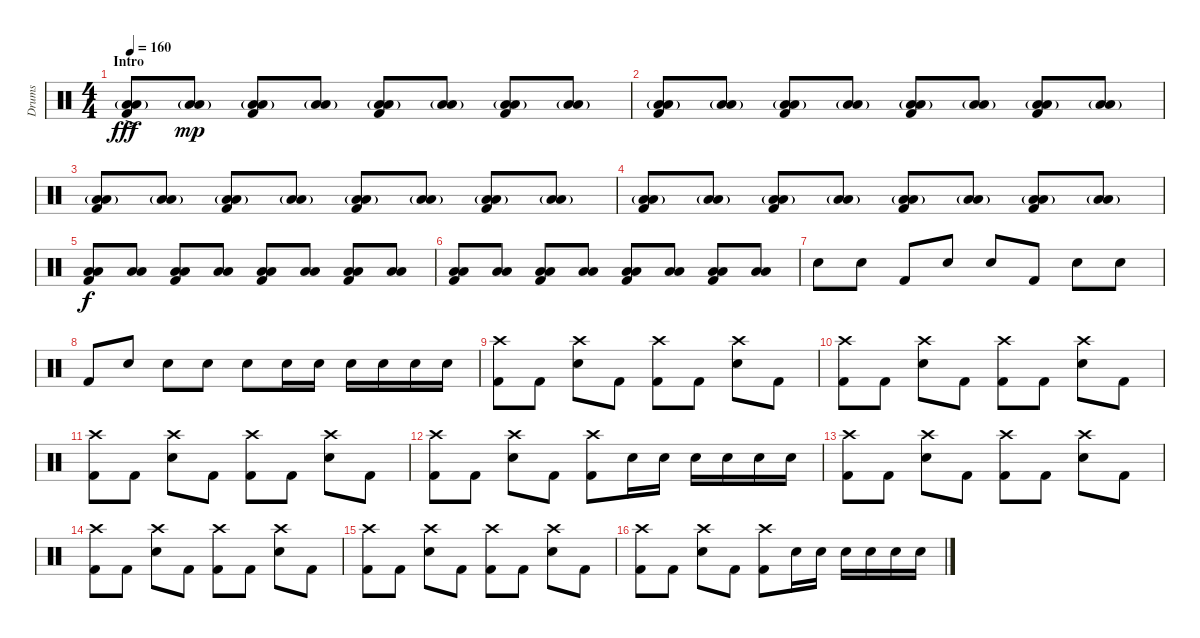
\track ("Drums" "Drums") {instrument percussion}
\staff {score}
\articulation defaults
\ts (4 4)
\section ("" "Intro")
\tempo 160
\clef neutral
\ks c
("Low Tom (hit)"{g ac} "Low Floor Tom (hit)"{g ac} "Kick (hit) 2"{ac}).8{dy fff} ("Low Tom (hit)"{g} "Low Floor Tom (hit)"{g}).8{dy mp} ("Low Tom (hit)"{g} "Low Floor Tom (hit)"{g} "Kick (hit) 2").8 ("Low Tom (hit)"{g} "Low Floor Tom (hit)"{g}).8 ("Low Tom (hit)"{g} "Low Floor Tom (hit)"{g} "Kick (hit) 2").8 ("Low Tom (hit)"{g} "Low Floor Tom (hit)"{g}).8 ("Low Tom (hit)"{g} "Low Floor Tom (hit)"{g} "Kick (hit) 2").8 ("Low Tom (hit)"{g} "Low Floor Tom (hit)"{g}).8 |
("Low Tom (hit)"{g} "Low Floor Tom (hit)"{g} "Kick (hit) 2").8 ("Low Tom (hit)"{g} "Low Floor Tom (hit)"{g}).8 ("Low Tom (hit)"{g} "Low Floor Tom (hit)"{g} "Kick (hit) 2").8 ("Low Tom (hit)"{g} "Low Floor Tom (hit)"{g}).8 ("Low Tom (hit)"{g} "Low Floor Tom (hit)"{g} "Kick (hit) 2").8 ("Low Tom (hit)"{g} "Low Floor Tom (hit)"{g}).8 ("Low Tom (hit)"{g} "Low Floor Tom (hit)"{g} "Kick (hit) 2").8 ("Low Tom (hit)"{g} "Low Floor Tom (hit)"{g}).8 |
("Low Tom (hit)"{g} "Low Floor Tom (hit)"{g} "Kick (hit) 2").8 ("Low Tom (hit)"{g} "Low Floor Tom (hit)"{g}).8 ("Low Tom (hit)"{g} "Low Floor Tom (hit)"{g} "Kick (hit) 2").8 ("Low Tom (hit)"{g} "Low Floor Tom (hit)"{g}).8 ("Low Tom (hit)"{g} "Low Floor Tom (hit)"{g} "Kick (hit) 2").8 ("Low Tom (hit)"{g} "Low Floor Tom (hit)"{g}).8 ("Low Tom (hit)"{g} "Low Floor Tom (hit)"{g} "Kick (hit) 2").8 ("Low Tom (hit)"{g} "Low Floor Tom (hit)"{g}).8 |
("Low Tom (hit)"{g} "Low Floor Tom (hit)"{g} "Kick (hit) 2").8 ("Low Tom (hit)"{g} "Low Floor Tom (hit)"{g}).8 ("Low Tom (hit)"{g} "Low Floor Tom (hit)"{g} "Kick (hit) 2").8 ("Low Tom (hit)"{g} "Low Floor Tom (hit)"{g}).8 ("Low Tom (hit)"{g} "Low Floor Tom (hit)"{g} "Kick (hit) 2").8 ("Low Tom (hit)"{g} "Low Floor Tom (hit)"{g}).8 ("Low Tom (hit)"{g} "Low Floor Tom (hit)"{g} "Kick (hit) 2").8 ("Low Tom (hit)"{g} "Low Floor Tom (hit)"{g}).8 |
("Low Tom (hit)" "Low Floor Tom (hit)" "Kick (hit) 2").8{dy f} ("Low Tom (hit)" "Low Floor Tom (hit)").8 ("Low Tom (hit)" "Low Floor Tom (hit)" "Kick (hit) 2").8 ("Low Tom (hit)" "Low Floor Tom (hit)").8 ("Low Tom (hit)" "Low Floor Tom (hit)" "Kick (hit) 2").8 ("Low Tom (hit)" "Low Floor Tom (hit)").8 ("Low Tom (hit)" "Low Floor Tom (hit)" "Kick (hit) 2").8 ("Low Tom (hit)" "Low Floor Tom (hit)").8 |
("Low Tom (hit)" "Low Floor Tom (hit)" "Kick (hit) 2").8 ("Low Tom (hit)" "Low Floor Tom (hit)").8 ("Low Tom (hit)" "Low Floor Tom (hit)" "Kick (hit) 2").8 ("Low Tom (hit)" "Low Floor Tom (hit)").8 ("Low Tom (hit)" "Low Floor Tom (hit)" "Kick (hit) 2").8 ("Low Tom (hit)" "Low Floor Tom (hit)").8 ("Low Tom (hit)" "Low Floor Tom (hit)" "Kick (hit) 2").8 ("Low Tom (hit)" "Low Floor Tom (hit)").8 |
"Snare (hit) 2".8 "Snare (hit) 2".8 "Kick (hit) 2".8 "Snare (hit) 2".8 "Snare (hit) 2".8 "Kick (hit) 2".8 "Snare (hit) 2".8 "Snare (hit) 2".8 |
"Kick (hit) 2".8 "Snare (hit) 2".8 "Snare (hit) 2".8 "Snare (hit) 2".8 "Snare (hit) 2".8 "Snare (hit) 2".16 "Snare (hit) 2".16 "Snare (hit) 2".16 "Snare (hit) 2".16 "Snare (hit) 2".16 "Snare (hit) 2".16 |
("Crash high (hit)" "Kick (hit) 2").8 "Kick (hit) 2".8 ("Crash high (hit)" "Snare (hit) 2").8 "Kick (hit) 2".8 ("Crash high (hit)" "Kick (hit) 2").8 "Kick (hit) 2".8 ("Crash high (hit)" "Snare (hit) 2").8 "Kick (hit) 2".8 |
("Crash high (hit)" "Kick (hit) 2").8 "Kick (hit) 2".8 ("Crash high (hit)" "Snare (hit) 2").8 "Kick (hit) 2".8 ("Crash high (hit)" "Kick (hit) 2").8 "Kick (hit) 2".8 ("Crash high (hit)" "Snare (hit) 2").8 "Kick (hit) 2".8 |
("Crash high (hit)" "Kick (hit) 2").8 "Kick (hit) 2".8 ("Crash high (hit)" "Snare (hit) 2").8 "Kick (hit) 2".8 ("Crash high (hit)" "Kick (hit) 2").8 "Kick (hit) 2".8 ("Crash high (hit)" "Snare (hit) 2").8 "Kick (hit) 2".8 |
("Crash high (hit)" "Kick (hit) 2").8 "Kick (hit) 2".8 ("Crash high (hit)" "Snare (hit) 2").8 "Kick (hit) 2".8 ("Crash high (hit)" "Kick (hit) 2").8 "Snare (hit) 2".16 "Snare (hit) 2".16 "Snare (hit) 2".16 "Snare (hit) 2".16 "Snare (hit) 2".16 "Snare (hit) 2".16 |
("Crash high (hit)" "Kick (hit) 2").8 "Kick (hit) 2".8 ("Crash high (hit)" "Snare (hit) 2").8 "Kick (hit) 2".8 ("Crash high (hit)" "Kick (hit) 2").8 "Kick (hit) 2".8 ("Crash high (hit)" "Snare (hit) 2").8 "Kick (hit) 2".8 |
("Crash high (hit)" "Kick (hit) 2").8 "Kick (hit) 2".8 ("Crash high (hit)" "Snare (hit) 2").8 "Kick (hit) 2".8 ("Crash high (hit)" "Kick (hit) 2").8 "Kick (hit) 2".8 ("Crash high (hit)" "Snare (hit) 2").8 "Kick (hit) 2".8 |
("Crash high (hit)" "Kick (hit) 2").8 "Kick (hit) 2".8 ("Crash high (hit)" "Snare (hit) 2").8 "Kick (hit) 2".8 ("Crash high (hit)" "Kick (hit) 2").8 "Kick (hit) 2".8 ("Crash high (hit)" "Snare (hit) 2").8 "Kick (hit) 2".8 |
("Crash high (hit)" "Kick (hit) 2").8 "Kick (hit) 2".8 ("Crash high (hit)" "Snare (hit) 2").8 "Kick (hit) 2".8 ("Crash high (hit)" "Kick (hit) 2").8 "Snare (hit) 2".16 "Snare (hit) 2".16 "Snare (hit) 2".16 "Snare (hit) 2".16 "Snare (hit) 2".16 "Snare (hit) 2".16
